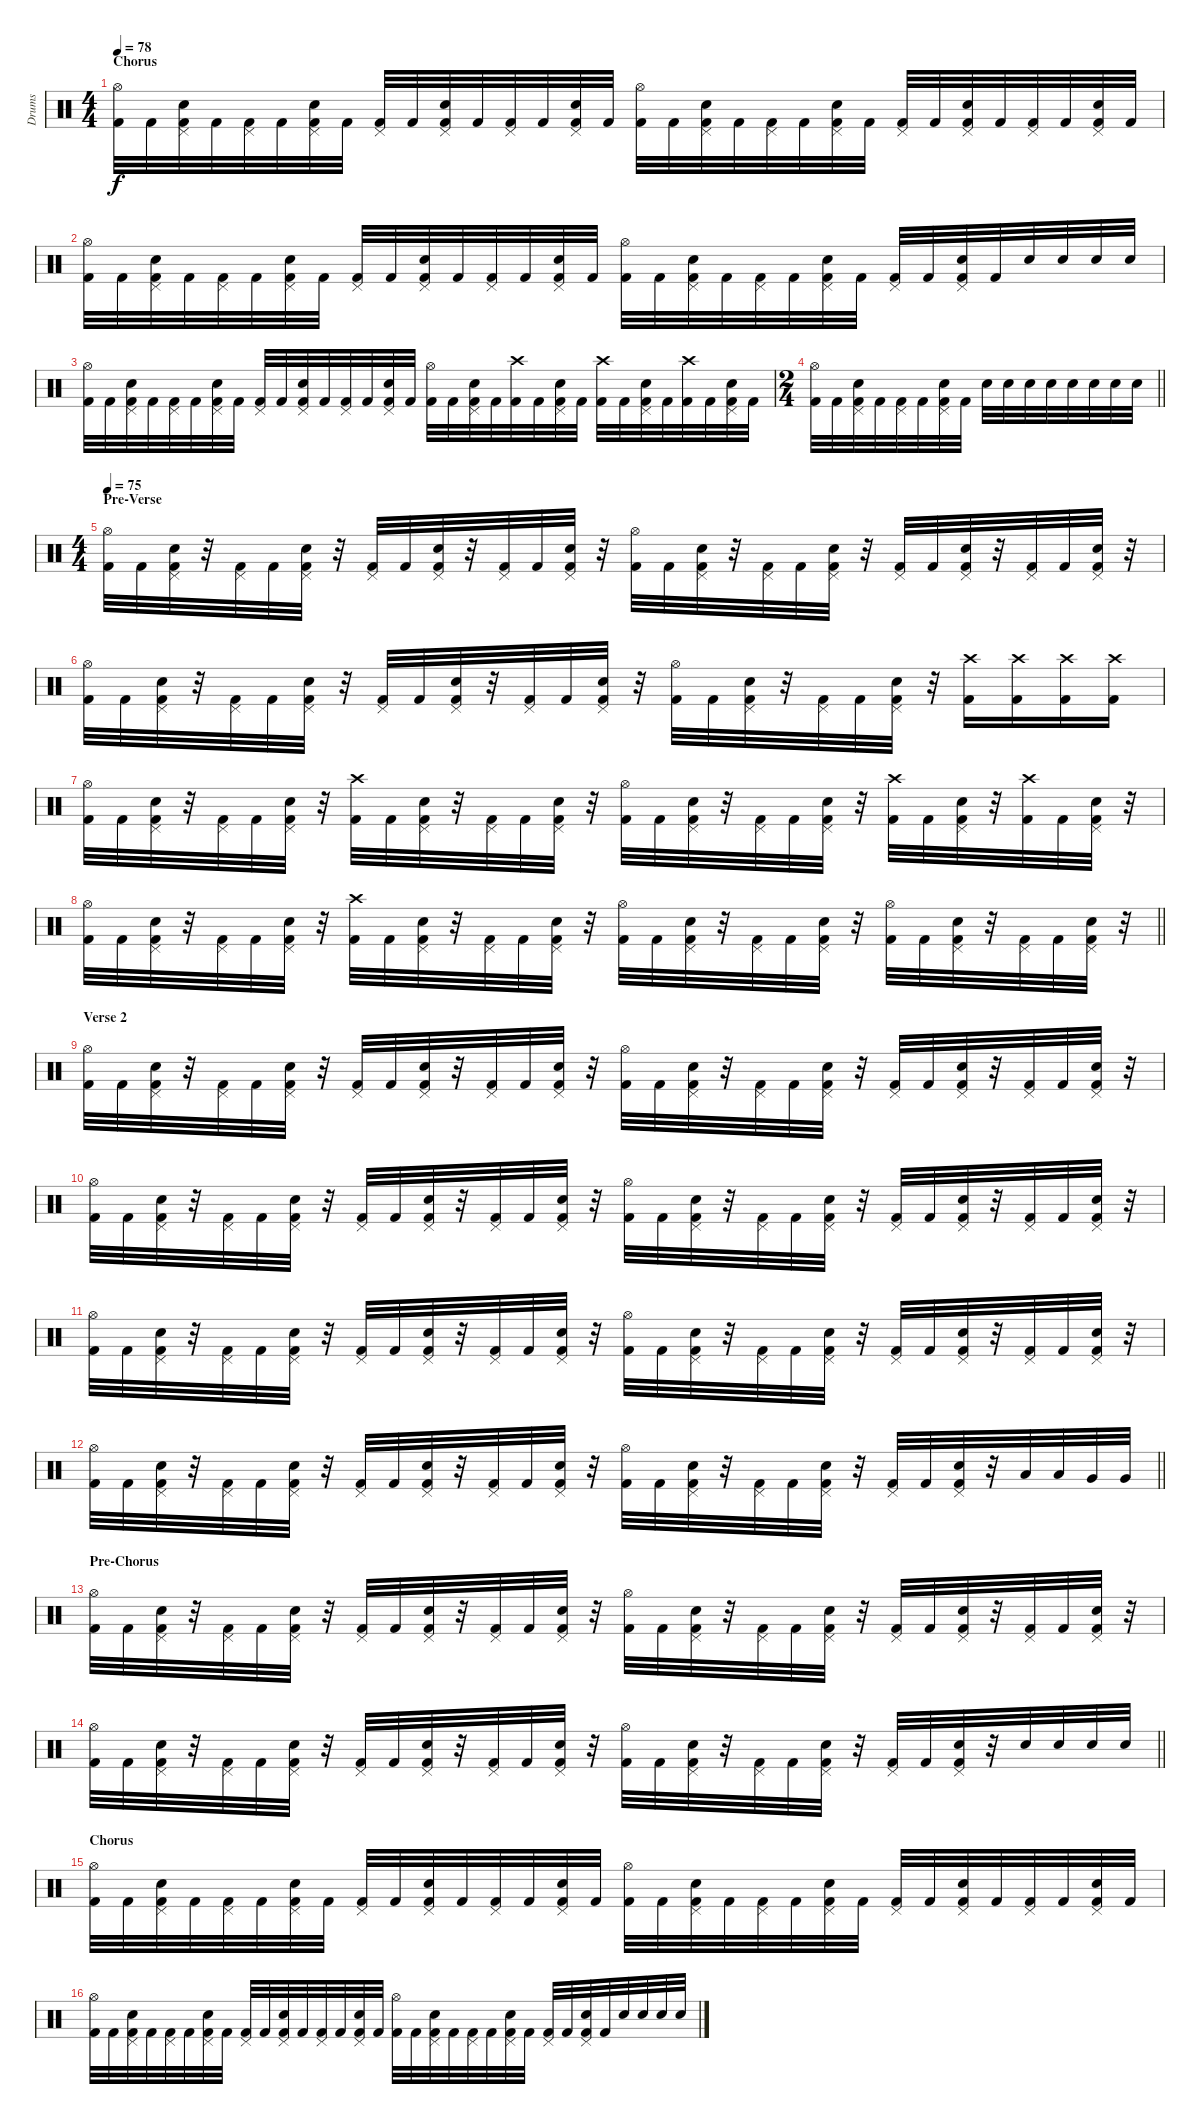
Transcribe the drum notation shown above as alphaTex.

\track ("Drums" "Drums") {instrument percussion}
\staff {score}
\articulation defaults
\ts (4 4)
\section ("" "Chorus")
\tempo 78
\clef neutral
\ks c
("Hi-Hat (open)" "Kick (hit) 2").32{dy f} "Kick (hit) 2".32 ("Pedal Hi-Hat (hit)" "Snare (hit) 2" "Kick (hit) 2").32 "Kick (hit) 2".32 ("Pedal Hi-Hat (hit)" "Kick (hit) 2").32 "Kick (hit) 2".32 ("Pedal Hi-Hat (hit)" "Snare (hit) 2" "Kick (hit) 2").32 "Kick (hit) 2".32 ("Pedal Hi-Hat (hit)" "Kick (hit) 2").32 "Kick (hit) 2".32 ("Pedal Hi-Hat (hit)" "Snare (hit) 2" "Kick (hit) 2").32 "Kick (hit) 2".32 ("Pedal Hi-Hat (hit)" "Kick (hit) 2").32 "Kick (hit) 2".32 ("Pedal Hi-Hat (hit)" "Snare (hit) 2" "Kick (hit) 2").32 "Kick (hit) 2".32 ("Hi-Hat (open)" "Kick (hit) 2").32 "Kick (hit) 2".32 ("Pedal Hi-Hat (hit)" "Snare (hit) 2" "Kick (hit) 2").32 "Kick (hit) 2".32 ("Pedal Hi-Hat (hit)" "Kick (hit) 2").32 "Kick (hit) 2".32 ("Pedal Hi-Hat (hit)" "Snare (hit) 2" "Kick (hit) 2").32 "Kick (hit) 2".32 ("Pedal Hi-Hat (hit)" "Kick (hit) 2").32 "Kick (hit) 2".32 ("Pedal Hi-Hat (hit)" "Snare (hit) 2" "Kick (hit) 2").32 "Kick (hit) 2".32 ("Pedal Hi-Hat (hit)" "Kick (hit) 2").32 "Kick (hit) 2".32 ("Pedal Hi-Hat (hit)" "Snare (hit) 2" "Kick (hit) 2").32 "Kick (hit) 2".32 |
("Hi-Hat (open)" "Kick (hit) 2").32 "Kick (hit) 2".32 ("Pedal Hi-Hat (hit)" "Snare (hit) 2" "Kick (hit) 2").32 "Kick (hit) 2".32 ("Pedal Hi-Hat (hit)" "Kick (hit) 2").32 "Kick (hit) 2".32 ("Pedal Hi-Hat (hit)" "Snare (hit) 2" "Kick (hit) 2").32 "Kick (hit) 2".32 ("Pedal Hi-Hat (hit)" "Kick (hit) 2").32 "Kick (hit) 2".32 ("Pedal Hi-Hat (hit)" "Snare (hit) 2" "Kick (hit) 2").32 "Kick (hit) 2".32 ("Pedal Hi-Hat (hit)" "Kick (hit) 2").32 "Kick (hit) 2".32 ("Pedal Hi-Hat (hit)" "Snare (hit) 2" "Kick (hit) 2").32 "Kick (hit) 2".32 ("Hi-Hat (open)" "Kick (hit) 2").32 "Kick (hit) 2".32 ("Pedal Hi-Hat (hit)" "Snare (hit) 2" "Kick (hit) 2").32 "Kick (hit) 2".32 ("Pedal Hi-Hat (hit)" "Kick (hit) 2").32 "Kick (hit) 2".32 ("Pedal Hi-Hat (hit)" "Snare (hit) 2" "Kick (hit) 2").32 "Kick (hit) 2".32 ("Pedal Hi-Hat (hit)" "Kick (hit) 2").32 "Kick (hit) 2".32 ("Pedal Hi-Hat (hit)" "Snare (hit) 2" "Kick (hit) 2").32 "Kick (hit) 2".32 "Snare (hit) 2".32 "Snare (hit) 2".32 "Snare (hit) 2".32 "Snare (hit) 2".32 |
("Hi-Hat (open)" "Kick (hit) 2").32 "Kick (hit) 2".32 ("Pedal Hi-Hat (hit)" "Snare (hit) 2" "Kick (hit) 2").32 "Kick (hit) 2".32 ("Pedal Hi-Hat (hit)" "Kick (hit) 2").32 "Kick (hit) 2".32 ("Pedal Hi-Hat (hit)" "Snare (hit) 2" "Kick (hit) 2").32 "Kick (hit) 2".32 ("Pedal Hi-Hat (hit)" "Kick (hit) 2").32 "Kick (hit) 2".32 ("Pedal Hi-Hat (hit)" "Snare (hit) 2" "Kick (hit) 2").32 "Kick (hit) 2".32 ("Pedal Hi-Hat (hit)" "Kick (hit) 2").32 "Kick (hit) 2".32 ("Pedal Hi-Hat (hit)" "Snare (hit) 2" "Kick (hit) 2").32 "Kick (hit) 2".32 ("Hi-Hat (open)" "Kick (hit) 2").32 "Kick (hit) 2".32 ("Pedal Hi-Hat (hit)" "Snare (hit) 2" "Kick (hit) 2").32 "Kick (hit) 2".32 ("Crash high (hit)" "Kick (hit) 2").32 "Kick (hit) 2".32 ("Pedal Hi-Hat (hit)" "Snare (hit) 2" "Kick (hit) 2").32 "Kick (hit) 2".32 ("Crash high (hit)" "Kick (hit) 2").32 "Kick (hit) 2".32 ("Pedal Hi-Hat (hit)" "Snare (hit) 2" "Kick (hit) 2").32 "Kick (hit) 2".32 ("Crash high (hit)" "Kick (hit) 2").32 "Kick (hit) 2".32 ("Pedal Hi-Hat (hit)" "Snare (hit) 2" "Kick (hit) 2").32 "Kick (hit) 2".32 |
\ts (2 4)
\barLineRight lightlight
("Hi-Hat (open)" "Kick (hit) 2").32 "Kick (hit) 2".32 ("Pedal Hi-Hat (hit)" "Snare (hit) 2" "Kick (hit) 2").32 "Kick (hit) 2".32 ("Pedal Hi-Hat (hit)" "Kick (hit) 2").32 "Kick (hit) 2".32 ("Pedal Hi-Hat (hit)" "Snare (hit) 2" "Kick (hit) 2").32 "Kick (hit) 2".32 "Snare (hit) 2".32 "Snare (hit) 2".32 "Snare (hit) 2".32 "Snare (hit) 2".32 "Snare (hit) 2".32 "Snare (hit) 2".32 "Snare (hit) 2".32 "Snare (hit) 2".32 |
\ts (4 4)
\section ("" "Pre-Verse")
\tempo 75
("Hi-Hat (open)" "Kick (hit) 2").32 "Kick (hit) 2".32 ("Pedal Hi-Hat (hit)" "Snare (hit) 2" "Kick (hit) 2").32 r.32 ("Pedal Hi-Hat (hit)" "Kick (hit) 2").32 "Kick (hit) 2".32 ("Pedal Hi-Hat (hit)" "Snare (hit) 2" "Kick (hit) 2").32 r.32 ("Pedal Hi-Hat (hit)" "Kick (hit) 2").32 "Kick (hit) 2".32 ("Pedal Hi-Hat (hit)" "Snare (hit) 2" "Kick (hit) 2").32 r.32 ("Pedal Hi-Hat (hit)" "Kick (hit) 2").32 "Kick (hit) 2".32 ("Pedal Hi-Hat (hit)" "Snare (hit) 2" "Kick (hit) 2").32 r.32 ("Hi-Hat (open)" "Kick (hit) 2").32 "Kick (hit) 2".32 ("Pedal Hi-Hat (hit)" "Snare (hit) 2" "Kick (hit) 2").32 r.32 ("Pedal Hi-Hat (hit)" "Kick (hit) 2").32 "Kick (hit) 2".32 ("Pedal Hi-Hat (hit)" "Snare (hit) 2" "Kick (hit) 2").32 r.32 ("Pedal Hi-Hat (hit)" "Kick (hit) 2").32 "Kick (hit) 2".32 ("Pedal Hi-Hat (hit)" "Snare (hit) 2" "Kick (hit) 2").32 r.32 ("Pedal Hi-Hat (hit)" "Kick (hit) 2").32 "Kick (hit) 2".32 ("Pedal Hi-Hat (hit)" "Snare (hit) 2" "Kick (hit) 2").32 r.32 |
("Hi-Hat (open)" "Kick (hit) 2").32 "Kick (hit) 2".32 ("Pedal Hi-Hat (hit)" "Snare (hit) 2" "Kick (hit) 2").32 r.32 ("Pedal Hi-Hat (hit)" "Kick (hit) 2").32 "Kick (hit) 2".32 ("Pedal Hi-Hat (hit)" "Snare (hit) 2" "Kick (hit) 2").32 r.32 ("Pedal Hi-Hat (hit)" "Kick (hit) 2").32 "Kick (hit) 2".32 ("Pedal Hi-Hat (hit)" "Snare (hit) 2" "Kick (hit) 2").32 r.32 ("Pedal Hi-Hat (hit)" "Kick (hit) 2").32 "Kick (hit) 2".32 ("Pedal Hi-Hat (hit)" "Snare (hit) 2" "Kick (hit) 2").32 r.32 ("Hi-Hat (open)" "Kick (hit) 2").32 "Kick (hit) 2".32 ("Pedal Hi-Hat (hit)" "Snare (hit) 2" "Kick (hit) 2").32 r.32 ("Pedal Hi-Hat (hit)" "Kick (hit) 2").32 "Kick (hit) 2".32 ("Pedal Hi-Hat (hit)" "Snare (hit) 2" "Kick (hit) 2").32 r.32 ("Crash high (hit)" "Kick (hit) 2").16 ("Crash high (hit)" "Kick (hit) 2").16 ("Crash high (hit)" "Kick (hit) 2").16 ("Crash high (hit)" "Kick (hit) 2").16 |
("Hi-Hat (open)" "Kick (hit) 2").32 "Kick (hit) 2".32 ("Pedal Hi-Hat (hit)" "Snare (hit) 2" "Kick (hit) 2").32 r.32 ("Pedal Hi-Hat (hit)" "Kick (hit) 2").32 "Kick (hit) 2".32 ("Pedal Hi-Hat (hit)" "Snare (hit) 2" "Kick (hit) 2").32 r.32 ("Crash high (hit)" "Kick (hit) 2").32 "Kick (hit) 2".32 ("Pedal Hi-Hat (hit)" "Snare (hit) 2" "Kick (hit) 2").32 r.32 ("Pedal Hi-Hat (hit)" "Kick (hit) 2").32 "Kick (hit) 2".32 ("Pedal Hi-Hat (hit)" "Snare (hit) 2" "Kick (hit) 2").32 r.32 ("Hi-Hat (open)" "Kick (hit) 2").32 "Kick (hit) 2".32 ("Pedal Hi-Hat (hit)" "Snare (hit) 2" "Kick (hit) 2").32 r.32 ("Pedal Hi-Hat (hit)" "Kick (hit) 2").32 "Kick (hit) 2".32 ("Pedal Hi-Hat (hit)" "Snare (hit) 2" "Kick (hit) 2").32 r.32 ("Crash high (hit)" "Kick (hit) 2").32 "Kick (hit) 2".32 ("Pedal Hi-Hat (hit)" "Snare (hit) 2" "Kick (hit) 2").32 r.32 ("Crash high (hit)" "Kick (hit) 2").32 "Kick (hit) 2".32 ("Pedal Hi-Hat (hit)" "Snare (hit) 2" "Kick (hit) 2").32 r.32 |
\barLineRight lightlight
("Hi-Hat (open)" "Kick (hit) 2").32 "Kick (hit) 2".32 ("Pedal Hi-Hat (hit)" "Snare (hit) 2" "Kick (hit) 2").32 r.32 ("Pedal Hi-Hat (hit)" "Kick (hit) 2").32 "Kick (hit) 2".32 ("Pedal Hi-Hat (hit)" "Snare (hit) 2" "Kick (hit) 2").32 r.32 ("Crash high (hit)" "Kick (hit) 2").32 "Kick (hit) 2".32 ("Pedal Hi-Hat (hit)" "Snare (hit) 2" "Kick (hit) 2").32 r.32 ("Pedal Hi-Hat (hit)" "Kick (hit) 2").32 "Kick (hit) 2".32 ("Pedal Hi-Hat (hit)" "Snare (hit) 2" "Kick (hit) 2").32 r.32 ("Hi-Hat (open)" "Kick (hit) 2").32 "Kick (hit) 2".32 ("Pedal Hi-Hat (hit)" "Snare (hit) 2" "Kick (hit) 2").32 r.32 ("Pedal Hi-Hat (hit)" "Kick (hit) 2").32 "Kick (hit) 2".32 ("Pedal Hi-Hat (hit)" "Snare (hit) 2" "Kick (hit) 2").32 r.32 ("Hi-Hat (open)" "Kick (hit) 2").32 "Kick (hit) 2".32 ("Pedal Hi-Hat (hit)" "Snare (hit) 2" "Kick (hit) 2").32 r.32 ("Pedal Hi-Hat (hit)" "Kick (hit) 2").32 "Kick (hit) 2".32 ("Pedal Hi-Hat (hit)" "Snare (hit) 2" "Kick (hit) 2").32 r.32 |
\section ("" "Verse 2")
("Hi-Hat (open)" "Kick (hit) 2").32 "Kick (hit) 2".32 ("Pedal Hi-Hat (hit)" "Snare (hit) 2" "Kick (hit) 2").32 r.32 ("Pedal Hi-Hat (hit)" "Kick (hit) 2").32 "Kick (hit) 2".32 ("Pedal Hi-Hat (hit)" "Snare (hit) 2" "Kick (hit) 2").32 r.32 ("Pedal Hi-Hat (hit)" "Kick (hit) 2").32 "Kick (hit) 2".32 ("Pedal Hi-Hat (hit)" "Snare (hit) 2" "Kick (hit) 2").32 r.32 ("Pedal Hi-Hat (hit)" "Kick (hit) 2").32 "Kick (hit) 2".32 ("Pedal Hi-Hat (hit)" "Snare (hit) 2" "Kick (hit) 2").32 r.32 ("Hi-Hat (open)" "Kick (hit) 2").32 "Kick (hit) 2".32 ("Pedal Hi-Hat (hit)" "Snare (hit) 2" "Kick (hit) 2").32 r.32 ("Pedal Hi-Hat (hit)" "Kick (hit) 2").32 "Kick (hit) 2".32 ("Pedal Hi-Hat (hit)" "Snare (hit) 2" "Kick (hit) 2").32 r.32 ("Pedal Hi-Hat (hit)" "Kick (hit) 2").32 "Kick (hit) 2".32 ("Pedal Hi-Hat (hit)" "Snare (hit) 2" "Kick (hit) 2").32 r.32 ("Pedal Hi-Hat (hit)" "Kick (hit) 2").32 "Kick (hit) 2".32 ("Pedal Hi-Hat (hit)" "Snare (hit) 2" "Kick (hit) 2").32 r.32 |
("Hi-Hat (open)" "Kick (hit) 2").32 "Kick (hit) 2".32 ("Pedal Hi-Hat (hit)" "Snare (hit) 2" "Kick (hit) 2").32 r.32 ("Pedal Hi-Hat (hit)" "Kick (hit) 2").32 "Kick (hit) 2".32 ("Pedal Hi-Hat (hit)" "Snare (hit) 2" "Kick (hit) 2").32 r.32 ("Pedal Hi-Hat (hit)" "Kick (hit) 2").32 "Kick (hit) 2".32 ("Pedal Hi-Hat (hit)" "Snare (hit) 2" "Kick (hit) 2").32 r.32 ("Pedal Hi-Hat (hit)" "Kick (hit) 2").32 "Kick (hit) 2".32 ("Pedal Hi-Hat (hit)" "Snare (hit) 2" "Kick (hit) 2").32 r.32 ("Hi-Hat (open)" "Kick (hit) 2").32 "Kick (hit) 2".32 ("Pedal Hi-Hat (hit)" "Snare (hit) 2" "Kick (hit) 2").32 r.32 ("Pedal Hi-Hat (hit)" "Kick (hit) 2").32 "Kick (hit) 2".32 ("Pedal Hi-Hat (hit)" "Snare (hit) 2" "Kick (hit) 2").32 r.32 ("Pedal Hi-Hat (hit)" "Kick (hit) 2").32 "Kick (hit) 2".32 ("Pedal Hi-Hat (hit)" "Snare (hit) 2" "Kick (hit) 2").32 r.32 ("Pedal Hi-Hat (hit)" "Kick (hit) 2").32 "Kick (hit) 2".32 ("Pedal Hi-Hat (hit)" "Snare (hit) 2" "Kick (hit) 2").32 r.32 |
("Hi-Hat (open)" "Kick (hit) 2").32 "Kick (hit) 2".32 ("Pedal Hi-Hat (hit)" "Snare (hit) 2" "Kick (hit) 2").32 r.32 ("Pedal Hi-Hat (hit)" "Kick (hit) 2").32 "Kick (hit) 2".32 ("Pedal Hi-Hat (hit)" "Snare (hit) 2" "Kick (hit) 2").32 r.32 ("Pedal Hi-Hat (hit)" "Kick (hit) 2").32 "Kick (hit) 2".32 ("Pedal Hi-Hat (hit)" "Snare (hit) 2" "Kick (hit) 2").32 r.32 ("Pedal Hi-Hat (hit)" "Kick (hit) 2").32 "Kick (hit) 2".32 ("Pedal Hi-Hat (hit)" "Snare (hit) 2" "Kick (hit) 2").32 r.32 ("Hi-Hat (open)" "Kick (hit) 2").32 "Kick (hit) 2".32 ("Pedal Hi-Hat (hit)" "Snare (hit) 2" "Kick (hit) 2").32 r.32 ("Pedal Hi-Hat (hit)" "Kick (hit) 2").32 "Kick (hit) 2".32 ("Pedal Hi-Hat (hit)" "Snare (hit) 2" "Kick (hit) 2").32 r.32 ("Pedal Hi-Hat (hit)" "Kick (hit) 2").32 "Kick (hit) 2".32 ("Pedal Hi-Hat (hit)" "Snare (hit) 2" "Kick (hit) 2").32 r.32 ("Pedal Hi-Hat (hit)" "Kick (hit) 2").32 "Kick (hit) 2".32 ("Pedal Hi-Hat (hit)" "Snare (hit) 2" "Kick (hit) 2").32 r.32 |
\barLineRight lightlight
("Hi-Hat (open)" "Kick (hit) 2").32 "Kick (hit) 2".32 ("Pedal Hi-Hat (hit)" "Snare (hit) 2" "Kick (hit) 2").32 r.32 ("Pedal Hi-Hat (hit)" "Kick (hit) 2").32 "Kick (hit) 2".32 ("Pedal Hi-Hat (hit)" "Snare (hit) 2" "Kick (hit) 2").32 r.32 ("Pedal Hi-Hat (hit)" "Kick (hit) 2").32 "Kick (hit) 2".32 ("Pedal Hi-Hat (hit)" "Snare (hit) 2" "Kick (hit) 2").32 r.32 ("Pedal Hi-Hat (hit)" "Kick (hit) 2").32 "Kick (hit) 2".32 ("Pedal Hi-Hat (hit)" "Snare (hit) 2" "Kick (hit) 2").32 r.32 ("Hi-Hat (open)" "Kick (hit) 2").32 "Kick (hit) 2".32 ("Pedal Hi-Hat (hit)" "Snare (hit) 2" "Kick (hit) 2").32 r.32 ("Pedal Hi-Hat (hit)" "Kick (hit) 2").32 "Kick (hit) 2".32 ("Pedal Hi-Hat (hit)" "Snare (hit) 2" "Kick (hit) 2").32 r.32 ("Pedal Hi-Hat (hit)" "Kick (hit) 2").32 "Kick (hit) 2".32 ("Pedal Hi-Hat (hit)" "Snare (hit) 2" "Kick (hit) 2").32 r.32 "Low Tom (hit)".32 "Low Tom (hit)".32 "Very Low Tom (hit)".32 "Very Low Tom (hit)".32 |
\section ("" "Pre-Chorus")
("Hi-Hat (open)" "Kick (hit) 2").32 "Kick (hit) 2".32 ("Pedal Hi-Hat (hit)" "Snare (hit) 2" "Kick (hit) 2").32 r.32 ("Pedal Hi-Hat (hit)" "Kick (hit) 2").32 "Kick (hit) 2".32 ("Pedal Hi-Hat (hit)" "Snare (hit) 2" "Kick (hit) 2").32 r.32 ("Pedal Hi-Hat (hit)" "Kick (hit) 2").32 "Kick (hit) 2".32 ("Pedal Hi-Hat (hit)" "Snare (hit) 2" "Kick (hit) 2").32 r.32 ("Pedal Hi-Hat (hit)" "Kick (hit) 2").32 "Kick (hit) 2".32 ("Pedal Hi-Hat (hit)" "Snare (hit) 2" "Kick (hit) 2").32 r.32 ("Hi-Hat (open)" "Kick (hit) 2").32 "Kick (hit) 2".32 ("Pedal Hi-Hat (hit)" "Snare (hit) 2" "Kick (hit) 2").32 r.32 ("Pedal Hi-Hat (hit)" "Kick (hit) 2").32 "Kick (hit) 2".32 ("Pedal Hi-Hat (hit)" "Snare (hit) 2" "Kick (hit) 2").32 r.32 ("Pedal Hi-Hat (hit)" "Kick (hit) 2").32 "Kick (hit) 2".32 ("Pedal Hi-Hat (hit)" "Snare (hit) 2" "Kick (hit) 2").32 r.32 ("Pedal Hi-Hat (hit)" "Kick (hit) 2").32 "Kick (hit) 2".32 ("Pedal Hi-Hat (hit)" "Snare (hit) 2" "Kick (hit) 2").32 r.32 |
\barLineRight lightlight
("Hi-Hat (open)" "Kick (hit) 2").32 "Kick (hit) 2".32 ("Pedal Hi-Hat (hit)" "Snare (hit) 2" "Kick (hit) 2").32 r.32 ("Pedal Hi-Hat (hit)" "Kick (hit) 2").32 "Kick (hit) 2".32 ("Pedal Hi-Hat (hit)" "Snare (hit) 2" "Kick (hit) 2").32 r.32 ("Pedal Hi-Hat (hit)" "Kick (hit) 2").32 "Kick (hit) 2".32 ("Pedal Hi-Hat (hit)" "Snare (hit) 2" "Kick (hit) 2").32 r.32 ("Pedal Hi-Hat (hit)" "Kick (hit) 2").32 "Kick (hit) 2".32 ("Pedal Hi-Hat (hit)" "Snare (hit) 2" "Kick (hit) 2").32 r.32 ("Hi-Hat (open)" "Kick (hit) 2").32 "Kick (hit) 2".32 ("Pedal Hi-Hat (hit)" "Snare (hit) 2" "Kick (hit) 2").32 r.32 ("Pedal Hi-Hat (hit)" "Kick (hit) 2").32 "Kick (hit) 2".32 ("Pedal Hi-Hat (hit)" "Snare (hit) 2" "Kick (hit) 2").32 r.32 ("Pedal Hi-Hat (hit)" "Kick (hit) 2").32 "Kick (hit) 2".32 ("Pedal Hi-Hat (hit)" "Snare (hit) 2" "Kick (hit) 2").32 r.32 "Snare (hit) 2".32 "Snare (hit) 2".32 "Snare (hit) 2".32 "Snare (hit) 2".32 |
\section ("" "Chorus")
("Hi-Hat (open)" "Kick (hit) 2").32 "Kick (hit) 2".32 ("Pedal Hi-Hat (hit)" "Snare (hit) 2" "Kick (hit) 2").32 "Kick (hit) 2".32 ("Pedal Hi-Hat (hit)" "Kick (hit) 2").32 "Kick (hit) 2".32 ("Pedal Hi-Hat (hit)" "Snare (hit) 2" "Kick (hit) 2").32 "Kick (hit) 2".32 ("Pedal Hi-Hat (hit)" "Kick (hit) 2").32 "Kick (hit) 2".32 ("Pedal Hi-Hat (hit)" "Snare (hit) 2" "Kick (hit) 2").32 "Kick (hit) 2".32 ("Pedal Hi-Hat (hit)" "Kick (hit) 2").32 "Kick (hit) 2".32 ("Pedal Hi-Hat (hit)" "Snare (hit) 2" "Kick (hit) 2").32 "Kick (hit) 2".32 ("Hi-Hat (open)" "Kick (hit) 2").32 "Kick (hit) 2".32 ("Pedal Hi-Hat (hit)" "Snare (hit) 2" "Kick (hit) 2").32 "Kick (hit) 2".32 ("Pedal Hi-Hat (hit)" "Kick (hit) 2").32 "Kick (hit) 2".32 ("Pedal Hi-Hat (hit)" "Snare (hit) 2" "Kick (hit) 2").32 "Kick (hit) 2".32 ("Pedal Hi-Hat (hit)" "Kick (hit) 2").32 "Kick (hit) 2".32 ("Pedal Hi-Hat (hit)" "Snare (hit) 2" "Kick (hit) 2").32 "Kick (hit) 2".32 ("Pedal Hi-Hat (hit)" "Kick (hit) 2").32 "Kick (hit) 2".32 ("Pedal Hi-Hat (hit)" "Snare (hit) 2" "Kick (hit) 2").32 "Kick (hit) 2".32 |
("Hi-Hat (open)" "Kick (hit) 2").32 "Kick (hit) 2".32 ("Pedal Hi-Hat (hit)" "Snare (hit) 2" "Kick (hit) 2").32 "Kick (hit) 2".32 ("Pedal Hi-Hat (hit)" "Kick (hit) 2").32 "Kick (hit) 2".32 ("Pedal Hi-Hat (hit)" "Snare (hit) 2" "Kick (hit) 2").32 "Kick (hit) 2".32 ("Pedal Hi-Hat (hit)" "Kick (hit) 2").32 "Kick (hit) 2".32 ("Pedal Hi-Hat (hit)" "Snare (hit) 2" "Kick (hit) 2").32 "Kick (hit) 2".32 ("Pedal Hi-Hat (hit)" "Kick (hit) 2").32 "Kick (hit) 2".32 ("Pedal Hi-Hat (hit)" "Snare (hit) 2" "Kick (hit) 2").32 "Kick (hit) 2".32 ("Hi-Hat (open)" "Kick (hit) 2").32 "Kick (hit) 2".32 ("Pedal Hi-Hat (hit)" "Snare (hit) 2" "Kick (hit) 2").32 "Kick (hit) 2".32 ("Pedal Hi-Hat (hit)" "Kick (hit) 2").32 "Kick (hit) 2".32 ("Pedal Hi-Hat (hit)" "Snare (hit) 2" "Kick (hit) 2").32 "Kick (hit) 2".32 ("Pedal Hi-Hat (hit)" "Kick (hit) 2").32 "Kick (hit) 2".32 ("Pedal Hi-Hat (hit)" "Snare (hit) 2" "Kick (hit) 2").32 "Kick (hit) 2".32 "Snare (hit) 2".32 "Snare (hit) 2".32 "Snare (hit) 2".32 "Snare (hit) 2".32
